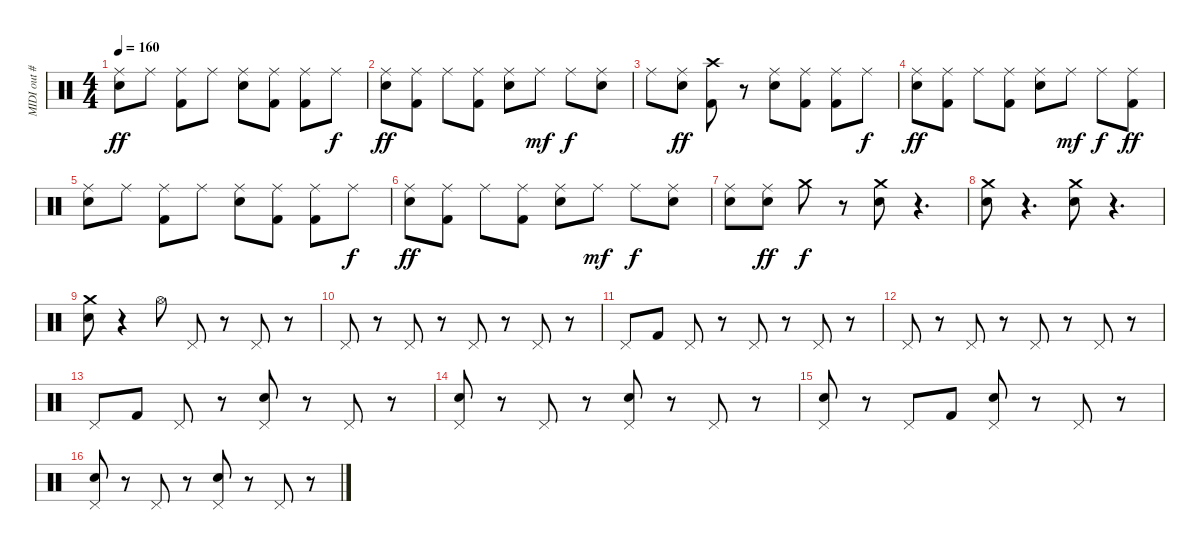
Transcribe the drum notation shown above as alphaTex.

\track ("MIDI out #4" "MIDI out #") {instrument percussion}
\staff {score}
\articulation defaults
\ts (4 4)
\tempo 160
\clef neutral
\ks c
("Ride (middle)" "Snare (hit) 2").8{dy ff} "Ride (middle)".8 ("Ride (middle)" "Kick (hit) 2").8 "Ride (middle)".8 ("Ride (middle)" "Snare (hit) 2").8 ("Ride (middle)" "Kick (hit) 2").8 ("Ride (middle)" "Kick (hit) 2").8 "Ride (middle)".8{dy f} |
("Ride (middle)" "Snare (hit) 2").8{dy ff} ("Ride (middle)" "Kick (hit) 2").8 "Ride (middle)".8 ("Ride (middle)" "Kick (hit) 2").8 ("Ride (middle)" "Snare (hit) 2").8 "Ride (middle)".8{dy mf} "Ride (middle)".8{dy f} ("Snare (hit) 2" "Ride (middle)").8 |
"Ride (middle)".8 ("Snare (hit) 2" "Ride (middle)").8{dy ff} ("Crash high (hit)" "Kick (hit) 2").8 r.8 ("Ride (middle)" "Snare (hit) 2").8 ("Ride (middle)" "Kick (hit) 2").8 ("Ride (middle)" "Kick (hit) 2").8 "Ride (middle)".8{dy f} |
("Ride (middle)" "Snare (hit) 2").8{dy ff} ("Ride (middle)" "Kick (hit) 2").8 "Ride (middle)".8 ("Ride (middle)" "Kick (hit) 2").8 ("Ride (middle)" "Snare (hit) 2").8 "Ride (middle)".8{dy mf} "Ride (middle)".8{dy f} ("Ride (middle)" "Kick (hit) 2").8{dy ff} |
("Ride (middle)" "Snare (hit) 2").8 "Ride (middle)".8 ("Ride (middle)" "Kick (hit) 2").8 "Ride (middle)".8 ("Ride (middle)" "Snare (hit) 2").8 ("Ride (middle)" "Kick (hit) 2").8 ("Ride (middle)" "Kick (hit) 2").8 "Ride (middle)".8{dy f} |
("Ride (middle)" "Snare (hit) 2").8{dy ff} ("Ride (middle)" "Kick (hit) 2").8 "Ride (middle)".8 ("Ride (middle)" "Kick (hit) 2").8 ("Ride (middle)" "Snare (hit) 2").8 "Ride (middle)".8{dy mf} "Ride (middle)".8{dy f} ("Snare (hit) 2" "Ride (middle)").8 |
("Snare (hit) 2" "Ride (middle)").8 ("Snare (hit) 2" "Ride (middle)").8{dy ff} "Crash medium (hit)".8{dy f} r.8 ("Crash medium (hit)" "Snare (hit) 2").8 r.4{d} |
("Crash medium (hit)" "Snare (hit) 2").8 r.4{d} ("Crash medium (hit)" "Snare (hit) 2").8 r.4{d} |
("Crash medium (hit)" "Snare (hit) 2").8 r.4 "Hi-Hat (open)".8 "Pedal Hi-Hat (hit)".8 r.8 "Pedal Hi-Hat (hit)".8 r.8 |
"Pedal Hi-Hat (hit)".8 r.8 "Pedal Hi-Hat (hit)".8 r.8 "Pedal Hi-Hat (hit)".8 r.8 "Pedal Hi-Hat (hit)".8 r.8 |
"Pedal Hi-Hat (hit)".8 "Kick (hit) 2".8 "Pedal Hi-Hat (hit)".8 r.8 "Pedal Hi-Hat (hit)".8 r.8 "Pedal Hi-Hat (hit)".8 r.8 |
"Pedal Hi-Hat (hit)".8 r.8 "Pedal Hi-Hat (hit)".8 r.8 "Pedal Hi-Hat (hit)".8 r.8 "Pedal Hi-Hat (hit)".8 r.8 |
"Pedal Hi-Hat (hit)".8 "Kick (hit) 2".8 "Pedal Hi-Hat (hit)".8 r.8 ("Snare (hit) 2" "Pedal Hi-Hat (hit)").8 r.8 "Pedal Hi-Hat (hit)".8 r.8 |
("Snare (hit) 2" "Pedal Hi-Hat (hit)").8 r.8 "Pedal Hi-Hat (hit)".8 r.8 ("Snare (hit) 2" "Pedal Hi-Hat (hit)").8 r.8 "Pedal Hi-Hat (hit)".8 r.8 |
("Snare (hit) 2" "Pedal Hi-Hat (hit)").8 r.8 "Pedal Hi-Hat (hit)".8 "Kick (hit) 2".8 ("Snare (hit) 2" "Pedal Hi-Hat (hit)").8 r.8 "Pedal Hi-Hat (hit)".8 r.8 |
("Snare (hit) 2" "Pedal Hi-Hat (hit)").8 r.8 "Pedal Hi-Hat (hit)".8 r.8 ("Snare (hit) 2" "Pedal Hi-Hat (hit)").8 r.8 "Pedal Hi-Hat (hit)".8 r.8
